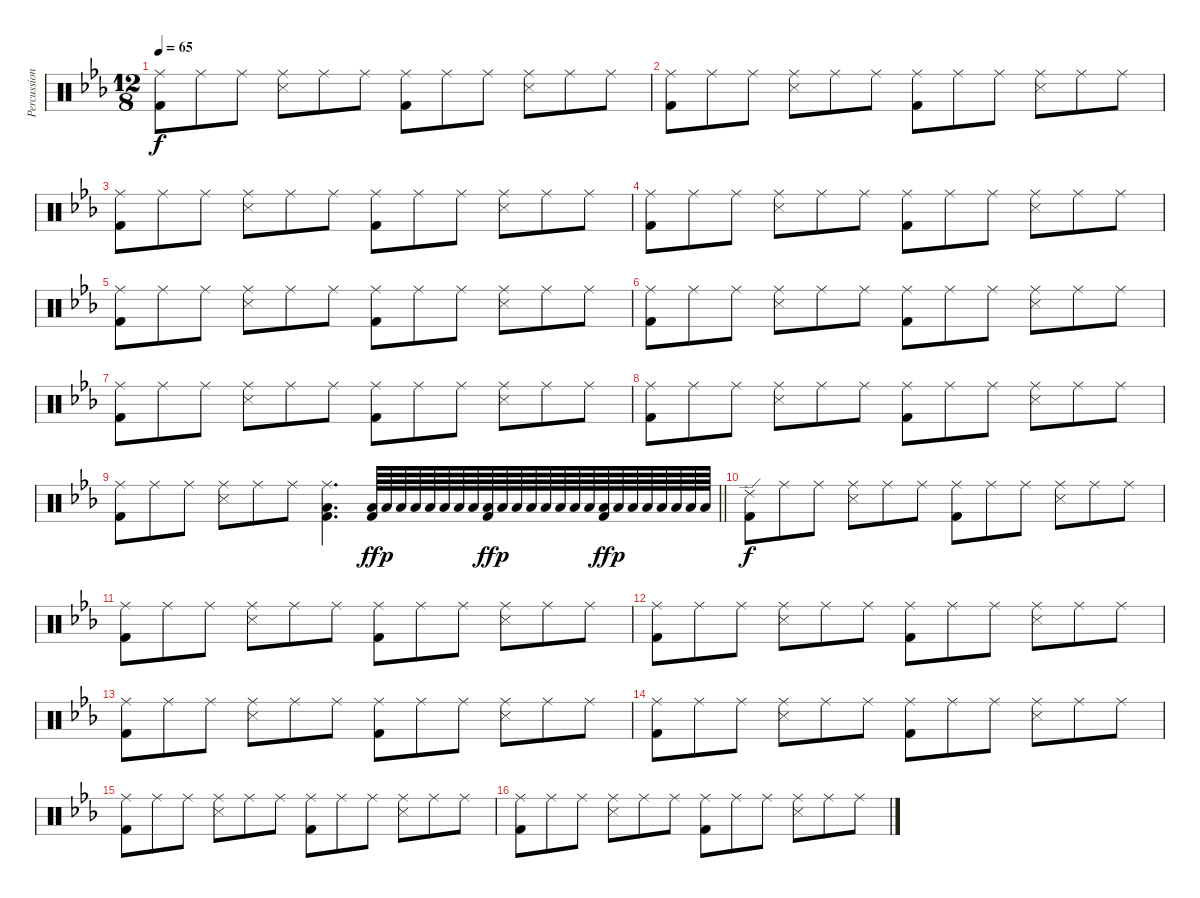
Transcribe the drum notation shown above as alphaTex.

\track ("Percussion" "Percussion") {instrument percussion}
\staff {score}
\articulation defaults
\ts (12 8)
\tempo 65
\clef neutral
\ks cminor
("Ride (middle)" "Kick (hit) 2").8{dy f} "Ride (middle)".8 "Ride (middle)".8 ("Ride (middle)" "Snare (side stick) 3").8 "Ride (middle)".8 "Ride (middle)".8 ("Ride (middle)" "Kick (hit) 2").8 "Ride (middle)".8 "Ride (middle)".8 ("Ride (middle)" "Snare (side stick) 3").8 "Ride (middle)".8 "Ride (middle)".8 |
("Ride (middle)" "Kick (hit) 2").8 "Ride (middle)".8 "Ride (middle)".8 ("Ride (middle)" "Snare (side stick) 3").8 "Ride (middle)".8 "Ride (middle)".8 ("Ride (middle)" "Kick (hit) 2").8 "Ride (middle)".8 "Ride (middle)".8 ("Ride (middle)" "Snare (side stick) 3").8 "Ride (middle)".8 "Ride (middle)".8 |
("Ride (middle)" "Kick (hit) 2").8 "Ride (middle)".8 "Ride (middle)".8 ("Ride (middle)" "Snare (side stick) 3").8 "Ride (middle)".8 "Ride (middle)".8 ("Ride (middle)" "Kick (hit) 2").8 "Ride (middle)".8 "Ride (middle)".8 ("Ride (middle)" "Snare (side stick) 3").8 "Ride (middle)".8 "Ride (middle)".8 |
("Ride (middle)" "Kick (hit) 2").8 "Ride (middle)".8 "Ride (middle)".8 ("Ride (middle)" "Snare (side stick) 3").8 "Ride (middle)".8 "Ride (middle)".8 ("Ride (middle)" "Kick (hit) 2").8 "Ride (middle)".8 "Ride (middle)".8 ("Ride (middle)" "Snare (side stick) 3").8 "Ride (middle)".8 "Ride (middle)".8 |
("Ride (middle)" "Kick (hit) 2").8 "Ride (middle)".8 "Ride (middle)".8 ("Ride (middle)" "Snare (side stick) 3").8 "Ride (middle)".8 "Ride (middle)".8 ("Ride (middle)" "Kick (hit) 2").8 "Ride (middle)".8 "Ride (middle)".8 ("Ride (middle)" "Snare (side stick) 3").8 "Ride (middle)".8 "Ride (middle)".8 |
("Ride (middle)" "Kick (hit) 2").8 "Ride (middle)".8 "Ride (middle)".8 ("Ride (middle)" "Snare (side stick) 3").8 "Ride (middle)".8 "Ride (middle)".8 ("Ride (middle)" "Kick (hit) 2").8 "Ride (middle)".8 "Ride (middle)".8 ("Ride (middle)" "Snare (side stick) 3").8 "Ride (middle)".8 "Ride (middle)".8 |
("Ride (middle)" "Kick (hit) 2").8 "Ride (middle)".8 "Ride (middle)".8 ("Ride (middle)" "Snare (side stick) 3").8 "Ride (middle)".8 "Ride (middle)".8 ("Ride (middle)" "Kick (hit) 2").8 "Ride (middle)".8 "Ride (middle)".8 ("Ride (middle)" "Snare (side stick) 3").8 "Ride (middle)".8 "Ride (middle)".8 |
("Ride (middle)" "Kick (hit) 2").8 "Ride (middle)".8 "Ride (middle)".8 ("Ride (middle)" "Snare (side stick) 3").8 "Ride (middle)".8 "Ride (middle)".8 ("Ride (middle)" "Kick (hit) 2").8 "Ride (middle)".8 "Ride (middle)".8 ("Ride (middle)" "Snare (side stick) 3").8 "Ride (middle)".8 "Ride (middle)".8 |
\barLineRight lightlight
("Ride (middle)" "Kick (hit) 2").8 "Ride (middle)".8 "Ride (middle)".8 ("Ride (middle)" "Snare (side stick) 3").8 "Ride (middle)".8 "Ride (middle)".8 ("Ride (middle)" "Low Floor Tom (hit)" "Kick (hit) 2").4{d} ("Low Floor Tom (hit)" "Kick (hit) 2").64{dy ff} "Low Floor Tom (hit)".64{dy p} "Low Floor Tom (hit)".64 "Low Floor Tom (hit)".64 "Low Floor Tom (hit)".64 "Low Floor Tom (hit)".64 "Low Floor Tom (hit)".64 "Low Floor Tom (hit)".64 ("Low Floor Tom (hit)" "Kick (hit) 2").64{dy ff} "Low Floor Tom (hit)".64{dy p} "Low Floor Tom (hit)".64 "Low Floor Tom (hit)".64 "Low Floor Tom (hit)".64 "Low Floor Tom (hit)".64 "Low Floor Tom (hit)".64 "Low Floor Tom (hit)".64 ("Low Floor Tom (hit)" "Kick (hit) 2").64{dy ff} "Low Floor Tom (hit)".64{dy p} "Low Floor Tom (hit)".64 "Low Floor Tom (hit)".64 "Low Floor Tom (hit)".64 "Low Floor Tom (hit)".64 "Low Floor Tom (hit)".64 "Low Floor Tom (hit)".64 |
("Ride (edge) 2" "Kick (hit) 2").8{dy f} "Ride (middle)".8 "Ride (middle)".8 ("Ride (middle)" "Snare (side stick) 3").8 "Ride (middle)".8 "Ride (middle)".8 ("Ride (middle)" "Kick (hit) 2").8 "Ride (middle)".8 "Ride (middle)".8 ("Ride (middle)" "Snare (side stick) 3").8 "Ride (middle)".8 "Ride (middle)".8 |
("Ride (middle)" "Kick (hit) 2").8 "Ride (middle)".8 "Ride (middle)".8 ("Ride (middle)" "Snare (side stick) 3").8 "Ride (middle)".8 "Ride (middle)".8 ("Ride (middle)" "Kick (hit) 2").8 "Ride (middle)".8 "Ride (middle)".8 ("Ride (middle)" "Snare (side stick) 3").8 "Ride (middle)".8 "Ride (middle)".8 |
("Ride (middle)" "Kick (hit) 2").8 "Ride (middle)".8 "Ride (middle)".8 ("Ride (middle)" "Snare (side stick) 3").8 "Ride (middle)".8 "Ride (middle)".8 ("Ride (middle)" "Kick (hit) 2").8 "Ride (middle)".8 "Ride (middle)".8 ("Ride (middle)" "Snare (side stick) 3").8 "Ride (middle)".8 "Ride (middle)".8 |
("Ride (middle)" "Kick (hit) 2").8 "Ride (middle)".8 "Ride (middle)".8 ("Ride (middle)" "Snare (side stick) 3").8 "Ride (middle)".8 "Ride (middle)".8 ("Ride (middle)" "Kick (hit) 2").8 "Ride (middle)".8 "Ride (middle)".8 ("Ride (middle)" "Snare (side stick) 3").8 "Ride (middle)".8 "Ride (middle)".8 |
("Ride (middle)" "Kick (hit) 2").8 "Ride (middle)".8 "Ride (middle)".8 ("Ride (middle)" "Snare (side stick) 3").8 "Ride (middle)".8 "Ride (middle)".8 ("Ride (middle)" "Kick (hit) 2").8 "Ride (middle)".8 "Ride (middle)".8 ("Ride (middle)" "Snare (side stick) 3").8 "Ride (middle)".8 "Ride (middle)".8 |
("Ride (middle)" "Kick (hit) 2").8 "Ride (middle)".8 "Ride (middle)".8 ("Ride (middle)" "Snare (side stick) 3").8 "Ride (middle)".8 "Ride (middle)".8 ("Ride (middle)" "Kick (hit) 2").8 "Ride (middle)".8 "Ride (middle)".8 ("Ride (middle)" "Snare (side stick) 3").8 "Ride (middle)".8 "Ride (middle)".8 |
("Ride (middle)" "Kick (hit) 2").8 "Ride (middle)".8 "Ride (middle)".8 ("Ride (middle)" "Snare (side stick) 3").8 "Ride (middle)".8 "Ride (middle)".8 ("Ride (middle)" "Kick (hit) 2").8 "Ride (middle)".8 "Ride (middle)".8 ("Ride (middle)" "Snare (side stick) 3").8 "Ride (middle)".8 "Ride (middle)".8
